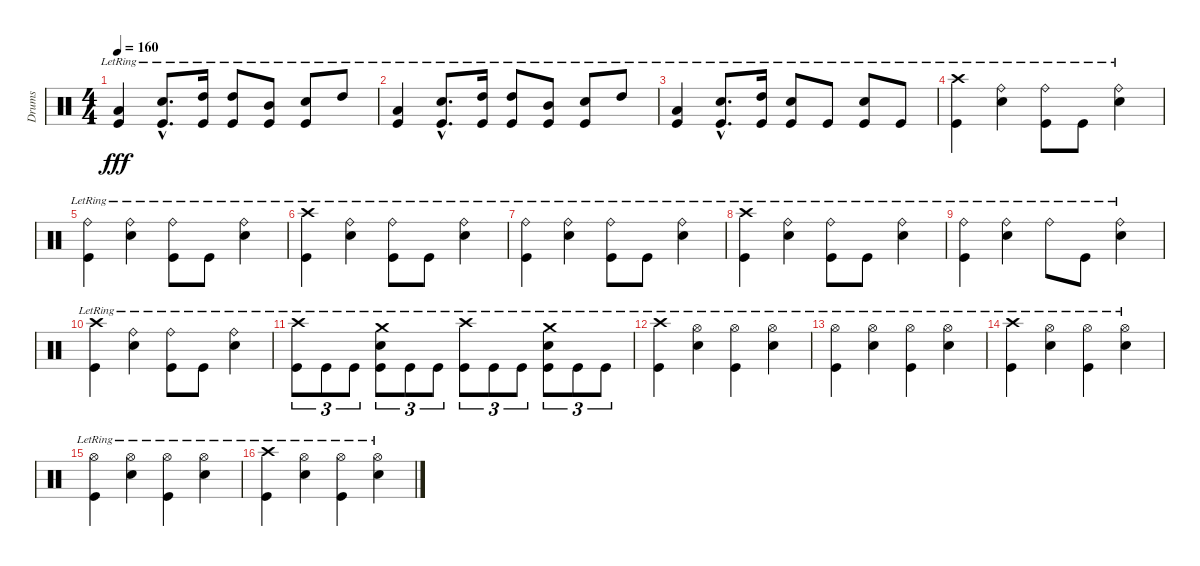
\track ("Drums" "Drums") {instrument percussion}
\staff {score}
\articulation defaults
\ts (4 4)
\tempo 160
\clef neutral
\ks c
("Low Floor Tom (hit)"{lr} "Kick (hit)"{lr}).4{dy fff} ("Snare (hit) 2"{hac lr} "Kick (hit)"{hac lr}).8{d} ("High Tom (hit)"{lr} "Kick (hit)"{lr}).16 ("High Tom (hit)"{lr} "Kick (hit)"{lr}).8 ("Mid Tom (hit)"{lr} "Kick (hit)"{lr}).8 ("Snare (hit) 2"{lr} "Kick (hit)"{lr}).8 "High Tom (hit)"{lr}.8 |
("Low Floor Tom (hit)"{lr} "Kick (hit)"{lr}).4 ("Snare (hit) 2"{hac lr} "Kick (hit)"{hac lr}).8{d} ("High Tom (hit)"{lr} "Kick (hit)"{lr}).16 ("High Tom (hit)"{lr} "Kick (hit)"{lr}).8 ("Mid Tom (hit)"{lr} "Kick (hit)"{lr}).8 ("Snare (hit) 2"{lr} "Kick (hit)"{lr}).8 "High Tom (hit)"{lr}.8 |
("Low Floor Tom (hit)"{lr} "Kick (hit)"{lr}).4 ("Snare (hit) 2"{hac lr} "Kick (hit)"{hac lr}).8{d} ("High Tom (hit)"{lr} "Kick (hit)"{lr}).16 ("Snare (hit) 2"{lr} "Kick (hit)"{lr}).8 "Kick (hit)"{lr}.8 ("Snare (hit) 2"{lr} "Kick (hit)"{lr}).8 "Kick (hit)"{lr}.8 |
("Crash high (hit)"{lr} "Kick (hit)"{lr}).4 ("Ride (bell)"{lr} "Snare (hit) 2"{lr}).4 ("Ride (bell)"{lr} "Kick (hit)"{lr}).8 "Kick (hit)"{lr}.8 ("Ride (bell)"{lr} "Snare (hit) 2"{lr}).4 |
("Ride (bell)"{lr} "Kick (hit)"{lr}).4 ("Ride (bell)"{lr} "Snare (hit) 2"{lr}).4 ("Ride (bell)"{lr} "Kick (hit)"{lr}).8 "Kick (hit)"{lr}.8 ("Ride (bell)"{lr} "Snare (hit) 2"{lr}).4 |
("Crash high (hit)"{lr} "Kick (hit)"{lr}).4 ("Ride (bell)"{lr} "Snare (hit) 2"{lr}).4 ("Ride (bell)"{lr} "Kick (hit)"{lr}).8 "Kick (hit)"{lr}.8 ("Ride (bell)"{lr} "Snare (hit) 2"{lr}).4 |
("Ride (bell)"{lr} "Kick (hit)"{lr}).4 ("Ride (bell)"{lr} "Snare (hit) 2"{lr}).4 ("Ride (bell)"{lr} "Kick (hit)"{lr}).8 "Kick (hit)"{lr}.8 ("Ride (bell)"{lr} "Snare (hit) 2"{lr}).4 |
("Crash high (hit)"{lr} "Kick (hit)"{lr}).4 ("Ride (bell)"{lr} "Snare (hit) 2"{lr}).4 ("Ride (bell)"{lr} "Kick (hit)"{lr}).8 "Kick (hit)"{lr}.8 ("Ride (bell)"{lr} "Snare (hit) 2"{lr}).4 |
("Ride (bell)"{lr} "Kick (hit)"{lr}).4 ("Ride (bell)"{lr} "Snare (hit) 2"{lr}).4 "Ride (bell)"{lr}.8 "Kick (hit)"{lr}.8 ("Ride (bell)"{lr} "Snare (hit) 2"{lr}).4 |
("Crash high (hit)"{lr} "Kick (hit)"{lr}).4 ("Ride (bell)"{lr} "Snare (hit) 2"{lr}).4 ("Ride (bell)"{lr} "Kick (hit)"{lr}).8 "Kick (hit)"{lr}.8 ("Ride (bell)"{lr} "Snare (hit) 2"{lr}).4 |
("Crash high (hit)"{lr} "Kick (hit)"{lr}).8{tu (3 2)} "Kick (hit)"{lr}.8{tu (3 2)} "Kick (hit)"{lr}.8{tu (3 2)} ("Crash medium (hit)"{lr} "Snare (hit) 2"{lr} "Kick (hit)"{lr}).8{tu (3 2)} "Kick (hit)"{lr}.8{tu (3 2)} "Kick (hit)"{lr}.8{tu (3 2)} ("Crash high (hit)"{lr} "Kick (hit)"{lr}).8{tu (3 2)} "Kick (hit)"{lr}.8{tu (3 2)} "Kick (hit)"{lr}.8{tu (3 2)} ("Crash medium (hit)"{lr} "Snare (hit) 2"{lr} "Kick (hit)"{lr}).8{tu (3 2)} "Kick (hit)"{lr}.8{tu (3 2)} "Kick (hit)"{lr}.8{tu (3 2)} |
("Crash high (hit)"{lr} "Kick (hit)"{lr}).4 ("Hi-Hat (open)"{lr} "Snare (hit) 2"{lr}).4 ("Hi-Hat (open)"{lr} "Kick (hit)"{lr}).4 ("Hi-Hat (open)"{lr} "Snare (hit) 2"{lr}).4 |
("Hi-Hat (open)"{lr} "Kick (hit)"{lr}).4 ("Hi-Hat (open)"{lr} "Snare (hit) 2"{lr}).4 ("Hi-Hat (open)"{lr} "Kick (hit)"{lr}).4 ("Hi-Hat (open)"{lr} "Snare (hit) 2"{lr}).4 |
("Crash high (hit)"{lr} "Kick (hit)"{lr}).4 ("Hi-Hat (open)"{lr} "Snare (hit) 2"{lr}).4 ("Hi-Hat (open)"{lr} "Kick (hit)"{lr}).4 ("Hi-Hat (open)"{lr} "Snare (hit) 2"{lr}).4 |
("Hi-Hat (open)"{lr} "Kick (hit)"{lr}).4 ("Hi-Hat (open)"{lr} "Snare (hit) 2"{lr}).4 ("Hi-Hat (open)"{lr} "Kick (hit)"{lr}).4 ("Hi-Hat (open)"{lr} "Snare (hit) 2"{lr}).4 |
("Crash high (hit)"{lr} "Kick (hit)"{lr}).4 ("Hi-Hat (open)"{lr} "Snare (hit) 2"{lr}).4 ("Hi-Hat (open)"{lr} "Kick (hit)"{lr}).4 ("Hi-Hat (open)"{lr} "Snare (hit) 2"{lr}).4
